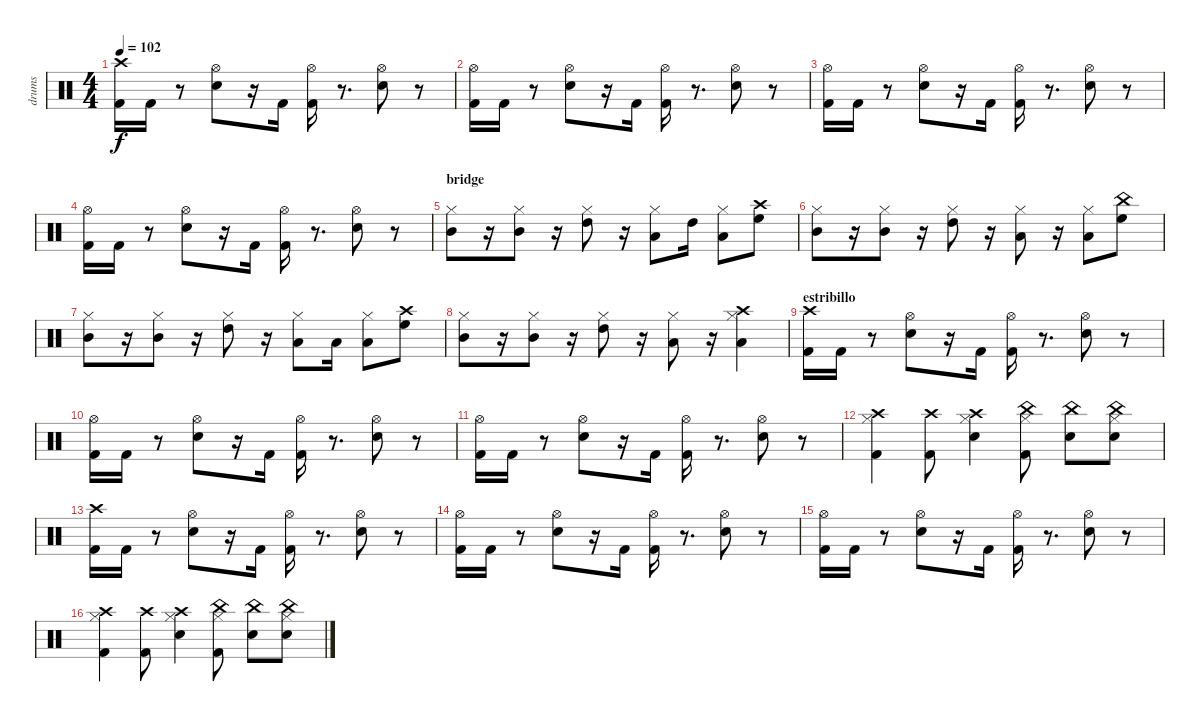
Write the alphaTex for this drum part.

\track ("drums" "drums") {instrument percussion}
\staff {score}
\articulation defaults
\ts (4 4)
\tempo 102
\clef neutral
\ks c
("Kick (hit) 2" "Crash high (hit)").16{dy f} "Kick (hit) 2".16 r.8 ("Snare (hit) 2" "Hi-Hat (open)").8 r.16 "Kick (hit) 2".16 ("Kick (hit) 2" "Hi-Hat (open)").16 r.8{d} ("Snare (hit) 2" "Hi-Hat (open)").8 r.8 |
("Kick (hit) 2" "Hi-Hat (open)").16 "Kick (hit) 2".16 r.8 ("Snare (hit) 2" "Hi-Hat (open)").8 r.16 "Kick (hit) 2".16 ("Kick (hit) 2" "Hi-Hat (open)").16 r.8{d} ("Snare (hit) 2" "Hi-Hat (open)").8 r.8 |
("Kick (hit) 2" "Hi-Hat (open)").16 "Kick (hit) 2".16 r.8 ("Snare (hit) 2" "Hi-Hat (open)").8 r.16 "Kick (hit) 2".16 ("Kick (hit) 2" "Hi-Hat (open)").16 r.8{d} ("Snare (hit) 2" "Hi-Hat (open)").8 r.8 |
("Kick (hit) 2" "Hi-Hat (open)").16 "Kick (hit) 2".16 r.8 ("Snare (hit) 2" "Hi-Hat (open)").8 r.16 "Kick (hit) 2".16 ("Kick (hit) 2" "Hi-Hat (open)").16 r.8{d} ("Snare (hit) 2" "Hi-Hat (open)").8 r.8 |
\section ("" "bridge")
("Mid Tom (hit)" "Hi-Hat (closed)").8 r.16 ("Mid Tom (hit)" "Hi-Hat (closed)").8 r.16 ("High Tom (hit)" "Hi-Hat (closed)").8 r.16 ("Low Tom (hit)" "Hi-Hat (closed)").8 "High Tom (hit)".16 ("Low Tom (hit)" "Hi-Hat (closed)").8 ("High Floor Tom (hit)" "Crash high (hit)").8 |
("Mid Tom (hit)" "Hi-Hat (closed)").8 r.16 ("Mid Tom (hit)" "Hi-Hat (closed)").8 r.16 ("High Tom (hit)" "Hi-Hat (closed)").8 r.16 ("Low Tom (hit)" "Hi-Hat (closed)").8 r.16 ("Low Tom (hit)" "Hi-Hat (closed)").8 ("High Floor Tom (hit)" "China (hit)").8 |
("Mid Tom (hit)" "Hi-Hat (closed)").8 r.16 ("Mid Tom (hit)" "Hi-Hat (closed)").8 r.16 ("High Tom (hit)" "Hi-Hat (closed)").8 r.16 ("Low Tom (hit)" "Hi-Hat (closed)").8 "Low Tom (hit)".16 ("Low Tom (hit)" "Hi-Hat (closed)").8 ("High Floor Tom (hit)" "Crash high (hit)").8 |
("Mid Tom (hit)" "Hi-Hat (closed)").8 r.16 ("Mid Tom (hit)" "Hi-Hat (closed)").8 r.16 ("High Tom (hit)" "Hi-Hat (closed)").8 r.16 ("Low Tom (hit)" "Hi-Hat (closed)").8 r.16 ("Low Tom (hit)" "Hi-Hat (closed)" "Crash high (hit)").4 |
\section ("" "estribillo")
("Kick (hit) 2" "Crash high (hit)").16 "Kick (hit) 2".16 r.8 ("Snare (hit) 2" "Hi-Hat (open)").8 r.16 "Kick (hit) 2".16 ("Kick (hit) 2" "Hi-Hat (open)").16 r.8{d} ("Snare (hit) 2" "Hi-Hat (open)").8 r.8 |
("Kick (hit) 2" "Hi-Hat (open)").16 "Kick (hit) 2".16 r.8 ("Snare (hit) 2" "Hi-Hat (open)").8 r.16 "Kick (hit) 2".16 ("Kick (hit) 2" "Hi-Hat (open)").16 r.8{d} ("Snare (hit) 2" "Hi-Hat (open)").8 r.8 |
("Kick (hit) 2" "Hi-Hat (open)").16 "Kick (hit) 2".16 r.8 ("Snare (hit) 2" "Hi-Hat (open)").8 r.16 "Kick (hit) 2".16 ("Kick (hit) 2" "Hi-Hat (open)").16 r.8{d} ("Snare (hit) 2" "Hi-Hat (open)").8 r.8 |
("Kick (hit) 2" "Hi-Hat (closed)" "Crash high (hit)").4 ("Kick (hit) 2" "Crash high (hit)").8 ("Snare (hit) 2" "Hi-Hat (closed)" "Crash high (hit)").4 ("Kick (hit) 2" "Hi-Hat (closed)" "China (hit)").8 ("Snare (hit) 2" "China (hit)").8 ("Snare (hit) 2" "Hi-Hat (closed)" "China (hit)").8 |
("Kick (hit) 2" "Crash high (hit)").16 "Kick (hit) 2".16 r.8 ("Snare (hit) 2" "Hi-Hat (open)").8 r.16 "Kick (hit) 2".16 ("Kick (hit) 2" "Hi-Hat (open)").16 r.8{d} ("Snare (hit) 2" "Hi-Hat (open)").8 r.8 |
("Kick (hit) 2" "Hi-Hat (open)").16 "Kick (hit) 2".16 r.8 ("Snare (hit) 2" "Hi-Hat (open)").8 r.16 "Kick (hit) 2".16 ("Kick (hit) 2" "Hi-Hat (open)").16 r.8{d} ("Snare (hit) 2" "Hi-Hat (open)").8 r.8 |
("Kick (hit) 2" "Hi-Hat (open)").16 "Kick (hit) 2".16 r.8 ("Snare (hit) 2" "Hi-Hat (open)").8 r.16 "Kick (hit) 2".16 ("Kick (hit) 2" "Hi-Hat (open)").16 r.8{d} ("Snare (hit) 2" "Hi-Hat (open)").8 r.8 |
("Kick (hit) 2" "Hi-Hat (closed)" "Crash high (hit)").4 ("Kick (hit) 2" "Crash high (hit)").8 ("Snare (hit) 2" "Hi-Hat (closed)" "Crash high (hit)").4 ("Kick (hit) 2" "Hi-Hat (closed)" "China (hit)").8 ("Snare (hit) 2" "China (hit)").8 ("Snare (hit) 2" "Hi-Hat (closed)" "China (hit)").8
